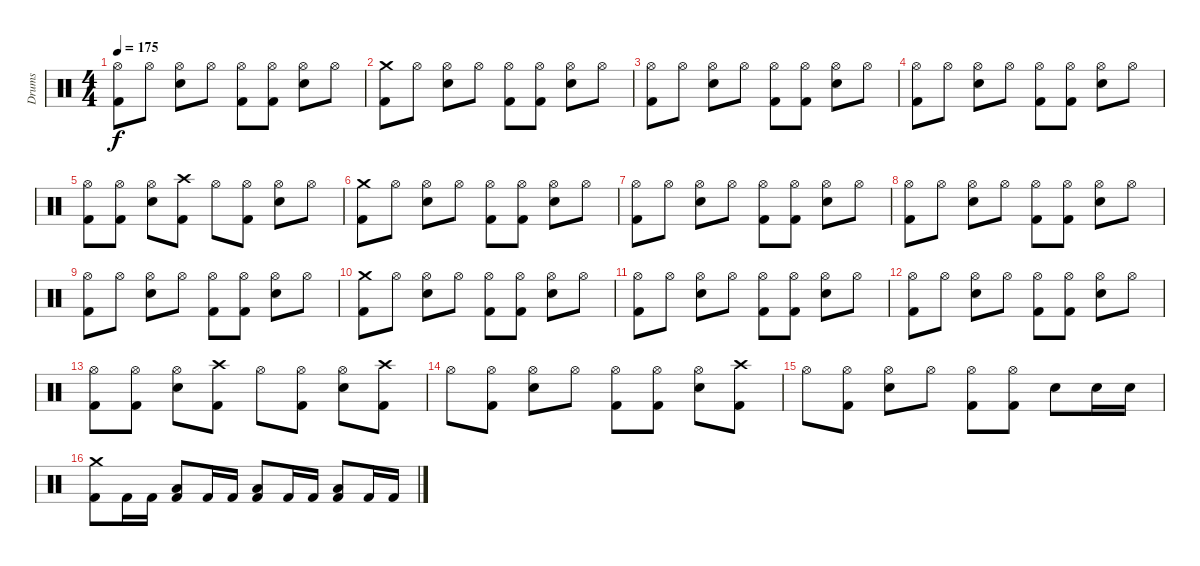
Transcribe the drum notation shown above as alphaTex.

\track ("Drums" "Drums") {instrument percussion}
\staff {score}
\articulation defaults
\ts (4 4)
\tempo 175
\clef neutral
\ks c
("Hi-Hat (open)" "Kick (hit) 2").8{dy f} "Hi-Hat (open)".8 ("Hi-Hat (open)" "Snare (hit) 2").8 "Hi-Hat (open)".8 ("Hi-Hat (open)" "Kick (hit) 2").8 ("Hi-Hat (open)" "Kick (hit) 2").8 ("Hi-Hat (open)" "Snare (hit) 2").8 "Hi-Hat (open)".8 |
("Crash medium (hit)" "Kick (hit) 2").8 "Hi-Hat (open)".8 ("Hi-Hat (open)" "Snare (hit) 2").8 "Hi-Hat (open)".8 ("Hi-Hat (open)" "Kick (hit) 2").8 ("Hi-Hat (open)" "Kick (hit) 2").8 ("Hi-Hat (open)" "Snare (hit) 2").8 "Hi-Hat (open)".8 |
("Hi-Hat (open)" "Kick (hit) 2").8 "Hi-Hat (open)".8 ("Hi-Hat (open)" "Snare (hit) 2").8 "Hi-Hat (open)".8 ("Hi-Hat (open)" "Kick (hit) 2").8 ("Hi-Hat (open)" "Kick (hit) 2").8 ("Hi-Hat (open)" "Snare (hit) 2").8 "Hi-Hat (open)".8 |
("Hi-Hat (open)" "Kick (hit) 2").8 "Hi-Hat (open)".8 ("Hi-Hat (open)" "Snare (hit) 2").8 "Hi-Hat (open)".8 ("Hi-Hat (open)" "Kick (hit) 2").8 ("Hi-Hat (open)" "Kick (hit) 2").8 ("Hi-Hat (open)" "Snare (hit) 2").8 "Hi-Hat (open)".8 |
("Hi-Hat (open)" "Kick (hit) 2").8 ("Hi-Hat (open)" "Kick (hit) 2").8 ("Hi-Hat (open)" "Snare (hit) 2").8 ("Crash high (hit)" "Kick (hit) 2").8 "Hi-Hat (open)".8 ("Hi-Hat (open)" "Kick (hit) 2").8 ("Hi-Hat (open)" "Snare (hit) 2").8 "Hi-Hat (open)".8 |
("Crash medium (hit)" "Kick (hit) 2").8 "Hi-Hat (open)".8 ("Hi-Hat (open)" "Snare (hit) 2").8 "Hi-Hat (open)".8 ("Hi-Hat (open)" "Kick (hit) 2").8 ("Hi-Hat (open)" "Kick (hit) 2").8 ("Hi-Hat (open)" "Snare (hit) 2").8 "Hi-Hat (open)".8 |
("Hi-Hat (open)" "Kick (hit) 2").8 "Hi-Hat (open)".8 ("Hi-Hat (open)" "Snare (hit) 2").8 "Hi-Hat (open)".8 ("Hi-Hat (open)" "Kick (hit) 2").8 ("Hi-Hat (open)" "Kick (hit) 2").8 ("Hi-Hat (open)" "Snare (hit) 2").8 "Hi-Hat (open)".8 |
("Hi-Hat (open)" "Kick (hit) 2").8 "Hi-Hat (open)".8 ("Hi-Hat (open)" "Snare (hit) 2").8 "Hi-Hat (open)".8 ("Hi-Hat (open)" "Kick (hit) 2").8 ("Hi-Hat (open)" "Kick (hit) 2").8 ("Hi-Hat (open)" "Snare (hit) 2").8 "Hi-Hat (open)".8 |
("Hi-Hat (open)" "Kick (hit) 2").8 "Hi-Hat (open)".8 ("Hi-Hat (open)" "Snare (hit) 2").8 "Hi-Hat (open)".8 ("Hi-Hat (open)" "Kick (hit) 2").8 ("Hi-Hat (open)" "Kick (hit) 2").8 ("Hi-Hat (open)" "Snare (hit) 2").8 "Hi-Hat (open)".8 |
("Crash medium (hit)" "Kick (hit) 2").8 "Hi-Hat (open)".8 ("Hi-Hat (open)" "Snare (hit) 2").8 "Hi-Hat (open)".8 ("Hi-Hat (open)" "Kick (hit) 2").8 ("Hi-Hat (open)" "Kick (hit) 2").8 ("Hi-Hat (open)" "Snare (hit) 2").8 "Hi-Hat (open)".8 |
("Hi-Hat (open)" "Kick (hit) 2").8 "Hi-Hat (open)".8 ("Hi-Hat (open)" "Snare (hit) 2").8 "Hi-Hat (open)".8 ("Hi-Hat (open)" "Kick (hit) 2").8 ("Hi-Hat (open)" "Kick (hit) 2").8 ("Hi-Hat (open)" "Snare (hit) 2").8 "Hi-Hat (open)".8 |
("Hi-Hat (open)" "Kick (hit) 2").8 "Hi-Hat (open)".8 ("Hi-Hat (open)" "Snare (hit) 2").8 "Hi-Hat (open)".8 ("Hi-Hat (open)" "Kick (hit) 2").8 ("Hi-Hat (open)" "Kick (hit) 2").8 ("Hi-Hat (open)" "Snare (hit) 2").8 "Hi-Hat (open)".8 |
("Hi-Hat (open)" "Kick (hit) 2").8 ("Hi-Hat (open)" "Kick (hit) 2").8 ("Hi-Hat (open)" "Snare (hit) 2").8 ("Crash high (hit)" "Kick (hit) 2").8 "Hi-Hat (open)".8 ("Hi-Hat (open)" "Kick (hit) 2").8 ("Hi-Hat (open)" "Snare (hit) 2").8 ("Crash high (hit)" "Kick (hit) 2").8 |
"Hi-Hat (open)".8 ("Hi-Hat (open)" "Kick (hit) 2").8 ("Hi-Hat (open)" "Snare (hit) 2").8 "Hi-Hat (open)".8 ("Hi-Hat (open)" "Kick (hit) 2").8 ("Hi-Hat (open)" "Kick (hit) 2").8 ("Hi-Hat (open)" "Snare (hit) 2").8 ("Crash high (hit)" "Kick (hit) 2").8 |
"Hi-Hat (open)".8 ("Hi-Hat (open)" "Kick (hit) 2").8 ("Hi-Hat (open)" "Snare (hit) 2").8 "Hi-Hat (open)".8 ("Hi-Hat (open)" "Kick (hit) 2").8 ("Hi-Hat (open)" "Kick (hit) 2").8 "Snare (hit) 2".8 "Snare (hit) 2".16 "Snare (hit) 2".16 |
("Crash medium (hit)" "Kick (hit) 2").8 "Kick (hit) 2".16 "Kick (hit) 2".16 ("Low Floor Tom (hit)" "Kick (hit) 2").8 "Kick (hit) 2".16 "Kick (hit) 2".16 ("Low Floor Tom (hit)" "Kick (hit) 2").8 "Kick (hit) 2".16 "Kick (hit) 2".16 ("Low Floor Tom (hit)" "Kick (hit) 2").8 "Kick (hit) 2".16 "Kick (hit) 2".16
